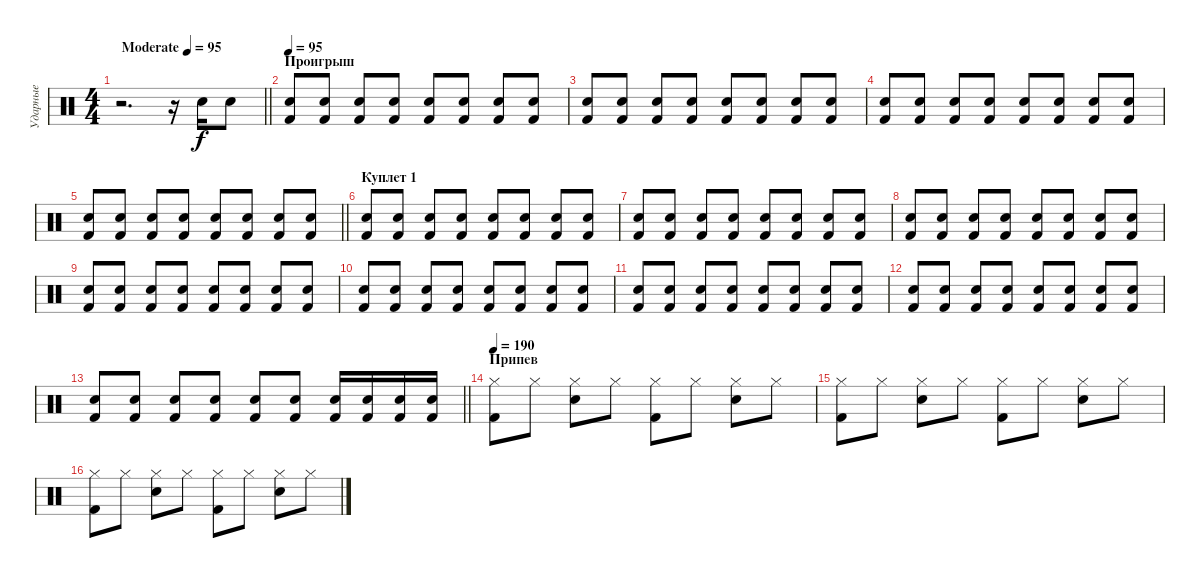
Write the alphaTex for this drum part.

\track ("Ударные" "Ударные") {instrument percussion}
\staff {score}
\articulation defaults
\ts (4 4)
\tempo (95 "Moderate")
\clef neutral
\barLineRight lightlight
\ks c
r.2{d dy f} r.16 "Snare (hit) 2".16 "Snare (hit) 2".8 |
\section ("" "Проигрыш")
\tempo 95
("Snare (hit) 2" "Kick (hit) 2").8 ("Snare (hit) 2" "Kick (hit) 2").8 ("Snare (hit) 2" "Kick (hit) 2").8 ("Snare (hit) 2" "Kick (hit) 2").8 ("Snare (hit) 2" "Kick (hit) 2").8 ("Snare (hit) 2" "Kick (hit) 2").8 ("Snare (hit) 2" "Kick (hit) 2").8 ("Snare (hit) 2" "Kick (hit) 2").8 |
("Snare (hit) 2" "Kick (hit) 2").8 ("Snare (hit) 2" "Kick (hit) 2").8 ("Snare (hit) 2" "Kick (hit) 2").8 ("Snare (hit) 2" "Kick (hit) 2").8 ("Snare (hit) 2" "Kick (hit) 2").8 ("Snare (hit) 2" "Kick (hit) 2").8 ("Snare (hit) 2" "Kick (hit) 2").8 ("Snare (hit) 2" "Kick (hit) 2").8 |
("Snare (hit) 2" "Kick (hit) 2").8 ("Snare (hit) 2" "Kick (hit) 2").8 ("Snare (hit) 2" "Kick (hit) 2").8 ("Snare (hit) 2" "Kick (hit) 2").8 ("Snare (hit) 2" "Kick (hit) 2").8 ("Snare (hit) 2" "Kick (hit) 2").8 ("Snare (hit) 2" "Kick (hit) 2").8 ("Snare (hit) 2" "Kick (hit) 2").8 |
\barLineRight lightlight
("Snare (hit) 2" "Kick (hit) 2").8 ("Snare (hit) 2" "Kick (hit) 2").8 ("Snare (hit) 2" "Kick (hit) 2").8 ("Snare (hit) 2" "Kick (hit) 2").8 ("Snare (hit) 2" "Kick (hit) 2").8 ("Snare (hit) 2" "Kick (hit) 2").8 ("Snare (hit) 2" "Kick (hit) 2").8 ("Snare (hit) 2" "Kick (hit) 2").8 |
\section ("" "Куплет 1")
("Snare (hit) 2" "Kick (hit) 2").8 ("Snare (hit) 2" "Kick (hit) 2").8 ("Snare (hit) 2" "Kick (hit) 2").8 ("Snare (hit) 2" "Kick (hit) 2").8 ("Snare (hit) 2" "Kick (hit) 2").8 ("Snare (hit) 2" "Kick (hit) 2").8 ("Snare (hit) 2" "Kick (hit) 2").8 ("Snare (hit) 2" "Kick (hit) 2").8 |
("Snare (hit) 2" "Kick (hit) 2").8 ("Snare (hit) 2" "Kick (hit) 2").8 ("Snare (hit) 2" "Kick (hit) 2").8 ("Snare (hit) 2" "Kick (hit) 2").8 ("Snare (hit) 2" "Kick (hit) 2").8 ("Snare (hit) 2" "Kick (hit) 2").8 ("Snare (hit) 2" "Kick (hit) 2").8 ("Snare (hit) 2" "Kick (hit) 2").8 |
("Snare (hit) 2" "Kick (hit) 2").8 ("Snare (hit) 2" "Kick (hit) 2").8 ("Snare (hit) 2" "Kick (hit) 2").8 ("Snare (hit) 2" "Kick (hit) 2").8 ("Snare (hit) 2" "Kick (hit) 2").8 ("Snare (hit) 2" "Kick (hit) 2").8 ("Snare (hit) 2" "Kick (hit) 2").8 ("Snare (hit) 2" "Kick (hit) 2").8 |
("Snare (hit) 2" "Kick (hit) 2").8 ("Snare (hit) 2" "Kick (hit) 2").8 ("Snare (hit) 2" "Kick (hit) 2").8 ("Snare (hit) 2" "Kick (hit) 2").8 ("Snare (hit) 2" "Kick (hit) 2").8 ("Snare (hit) 2" "Kick (hit) 2").8 ("Snare (hit) 2" "Kick (hit) 2").8 ("Snare (hit) 2" "Kick (hit) 2").8 |
("Snare (hit) 2" "Kick (hit) 2").8 ("Snare (hit) 2" "Kick (hit) 2").8 ("Snare (hit) 2" "Kick (hit) 2").8 ("Snare (hit) 2" "Kick (hit) 2").8 ("Snare (hit) 2" "Kick (hit) 2").8 ("Snare (hit) 2" "Kick (hit) 2").8 ("Snare (hit) 2" "Kick (hit) 2").8 ("Snare (hit) 2" "Kick (hit) 2").8 |
("Snare (hit) 2" "Kick (hit) 2").8 ("Snare (hit) 2" "Kick (hit) 2").8 ("Snare (hit) 2" "Kick (hit) 2").8 ("Snare (hit) 2" "Kick (hit) 2").8 ("Snare (hit) 2" "Kick (hit) 2").8 ("Snare (hit) 2" "Kick (hit) 2").8 ("Snare (hit) 2" "Kick (hit) 2").8 ("Snare (hit) 2" "Kick (hit) 2").8 |
("Snare (hit) 2" "Kick (hit) 2").8 ("Snare (hit) 2" "Kick (hit) 2").8 ("Snare (hit) 2" "Kick (hit) 2").8 ("Snare (hit) 2" "Kick (hit) 2").8 ("Snare (hit) 2" "Kick (hit) 2").8 ("Snare (hit) 2" "Kick (hit) 2").8 ("Snare (hit) 2" "Kick (hit) 2").8 ("Snare (hit) 2" "Kick (hit) 2").8 |
\barLineRight lightlight
("Snare (hit) 2" "Kick (hit) 2").8 ("Snare (hit) 2" "Kick (hit) 2").8 ("Snare (hit) 2" "Kick (hit) 2").8 ("Snare (hit) 2" "Kick (hit) 2").8 ("Snare (hit) 2" "Kick (hit) 2").8 ("Snare (hit) 2" "Kick (hit) 2").8 ("Snare (hit) 2" "Kick (hit) 2").16 ("Snare (hit) 2" "Kick (hit) 2").16 ("Snare (hit) 2" "Kick (hit) 2").16 ("Snare (hit) 2" "Kick (hit) 2").16 |
\section ("" "Припев")
\tempo 190
("Hi-Hat (closed)" "Kick (hit) 2").8 "Hi-Hat (closed)".8 ("Hi-Hat (closed)" "Snare (hit) 2").8 "Hi-Hat (closed)".8 ("Hi-Hat (closed)" "Kick (hit) 2").8 "Hi-Hat (closed)".8 ("Hi-Hat (closed)" "Snare (hit) 2").8 "Hi-Hat (closed)".8 |
("Hi-Hat (closed)" "Kick (hit) 2").8 "Hi-Hat (closed)".8 ("Hi-Hat (closed)" "Snare (hit) 2").8 "Hi-Hat (closed)".8 ("Hi-Hat (closed)" "Kick (hit) 2").8 "Hi-Hat (closed)".8 ("Hi-Hat (closed)" "Snare (hit) 2").8 "Hi-Hat (closed)".8 |
("Hi-Hat (closed)" "Kick (hit) 2").8 "Hi-Hat (closed)".8 ("Hi-Hat (closed)" "Snare (hit) 2").8 "Hi-Hat (closed)".8 ("Hi-Hat (closed)" "Kick (hit) 2").8 "Hi-Hat (closed)".8 ("Hi-Hat (closed)" "Snare (hit) 2").8 "Hi-Hat (closed)".8
